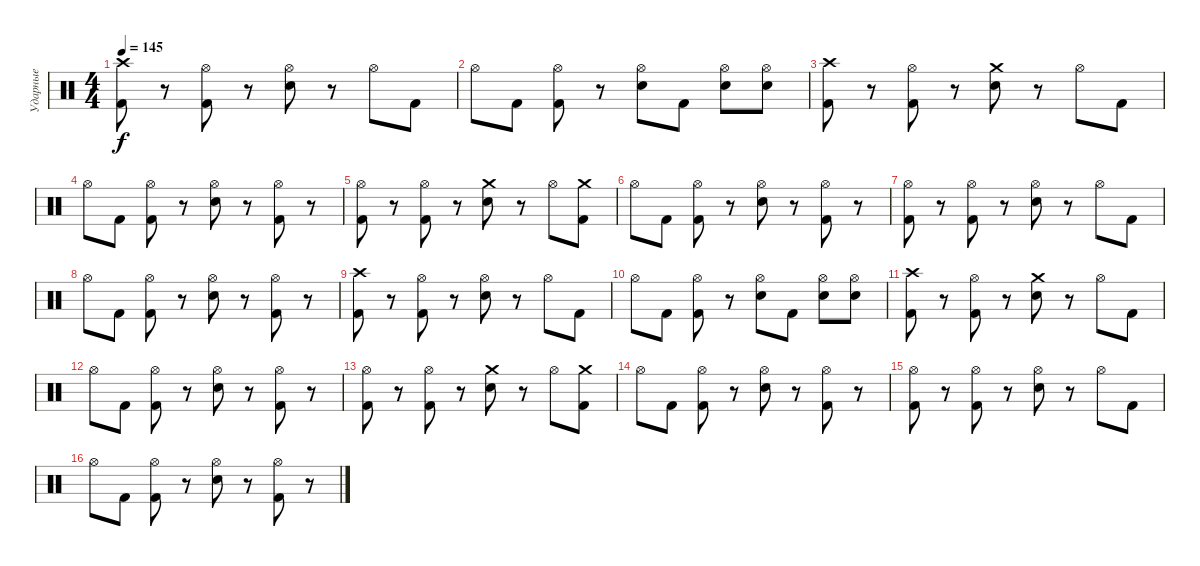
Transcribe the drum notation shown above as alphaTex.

\track ("Ударные" "Ударные") {instrument percussion}
\staff {score}
\articulation defaults
\ts (4 4)
\tempo 145
\clef neutral
\ks c
("Crash high (hit)" "Kick (hit) 2").8{dy f} r.8 ("Hi-Hat (open)" "Kick (hit) 2").8 r.8 ("Hi-Hat (open)" "Snare (hit) 2").8 r.8 "Hi-Hat (open)".8 "Kick (hit) 2".8 |
"Hi-Hat (open)".8 "Kick (hit) 2".8 ("Hi-Hat (open)" "Kick (hit) 2").8 r.8 ("Hi-Hat (open)" "Snare (hit) 2").8 "Kick (hit) 2".8 ("Hi-Hat (open)" "Snare (hit) 2").8 ("Hi-Hat (open)" "Snare (hit) 2").8 |
("Crash high (hit)" "Kick (hit) 2").8 r.8 ("Hi-Hat (open)" "Kick (hit) 2").8 r.8 ("Crash medium (hit)" "Snare (hit) 2").8 r.8 "Hi-Hat (open)".8 "Kick (hit) 2".8 |
"Hi-Hat (open)".8 "Kick (hit) 2".8 ("Hi-Hat (open)" "Kick (hit) 2").8 r.8 ("Hi-Hat (open)" "Snare (hit) 2").8 r.8 ("Hi-Hat (open)" "Kick (hit) 2").8 r.8 |
("Hi-Hat (open)" "Kick (hit) 2").8 r.8 ("Hi-Hat (open)" "Kick (hit) 2").8 r.8 ("Crash medium (hit)" "Snare (hit) 2").8 r.8 "Hi-Hat (open)".8 ("Crash medium (hit)" "Kick (hit) 2").8 |
"Hi-Hat (open)".8 "Kick (hit) 2".8 ("Hi-Hat (open)" "Kick (hit) 2").8 r.8 ("Hi-Hat (open)" "Snare (hit) 2").8 r.8 ("Hi-Hat (open)" "Kick (hit) 2").8 r.8 |
("Hi-Hat (open)" "Kick (hit) 2").8 r.8 ("Hi-Hat (open)" "Kick (hit) 2").8 r.8 ("Hi-Hat (open)" "Snare (hit) 2").8 r.8 "Hi-Hat (open)".8 "Kick (hit) 2".8 |
"Hi-Hat (open)".8 "Kick (hit) 2".8 ("Hi-Hat (open)" "Kick (hit) 2").8 r.8 ("Hi-Hat (open)" "Snare (hit) 2").8 r.8 ("Hi-Hat (open)" "Kick (hit) 2").8 r.8 |
("Crash high (hit)" "Kick (hit) 2").8 r.8 ("Hi-Hat (open)" "Kick (hit) 2").8 r.8 ("Hi-Hat (open)" "Snare (hit) 2").8 r.8 "Hi-Hat (open)".8 "Kick (hit) 2".8 |
"Hi-Hat (open)".8 "Kick (hit) 2".8 ("Hi-Hat (open)" "Kick (hit) 2").8 r.8 ("Hi-Hat (open)" "Snare (hit) 2").8 "Kick (hit) 2".8 ("Hi-Hat (open)" "Snare (hit) 2").8 ("Hi-Hat (open)" "Snare (hit) 2").8 |
("Crash high (hit)" "Kick (hit) 2").8 r.8 ("Hi-Hat (open)" "Kick (hit) 2").8 r.8 ("Crash medium (hit)" "Snare (hit) 2").8 r.8 "Hi-Hat (open)".8 "Kick (hit) 2".8 |
"Hi-Hat (open)".8 "Kick (hit) 2".8 ("Hi-Hat (open)" "Kick (hit) 2").8 r.8 ("Hi-Hat (open)" "Snare (hit) 2").8 r.8 ("Hi-Hat (open)" "Kick (hit) 2").8 r.8 |
("Hi-Hat (open)" "Kick (hit) 2").8 r.8 ("Hi-Hat (open)" "Kick (hit) 2").8 r.8 ("Crash medium (hit)" "Snare (hit) 2").8 r.8 "Hi-Hat (open)".8 ("Crash medium (hit)" "Kick (hit) 2").8 |
"Hi-Hat (open)".8 "Kick (hit) 2".8 ("Hi-Hat (open)" "Kick (hit) 2").8 r.8 ("Hi-Hat (open)" "Snare (hit) 2").8 r.8 ("Hi-Hat (open)" "Kick (hit) 2").8 r.8 |
("Hi-Hat (open)" "Kick (hit) 2").8 r.8 ("Hi-Hat (open)" "Kick (hit) 2").8 r.8 ("Hi-Hat (open)" "Snare (hit) 2").8 r.8 "Hi-Hat (open)".8 "Kick (hit) 2".8 |
"Hi-Hat (open)".8 "Kick (hit) 2".8 ("Hi-Hat (open)" "Kick (hit) 2").8 r.8 ("Hi-Hat (open)" "Snare (hit) 2").8 r.8 ("Hi-Hat (open)" "Kick (hit) 2").8 r.8
